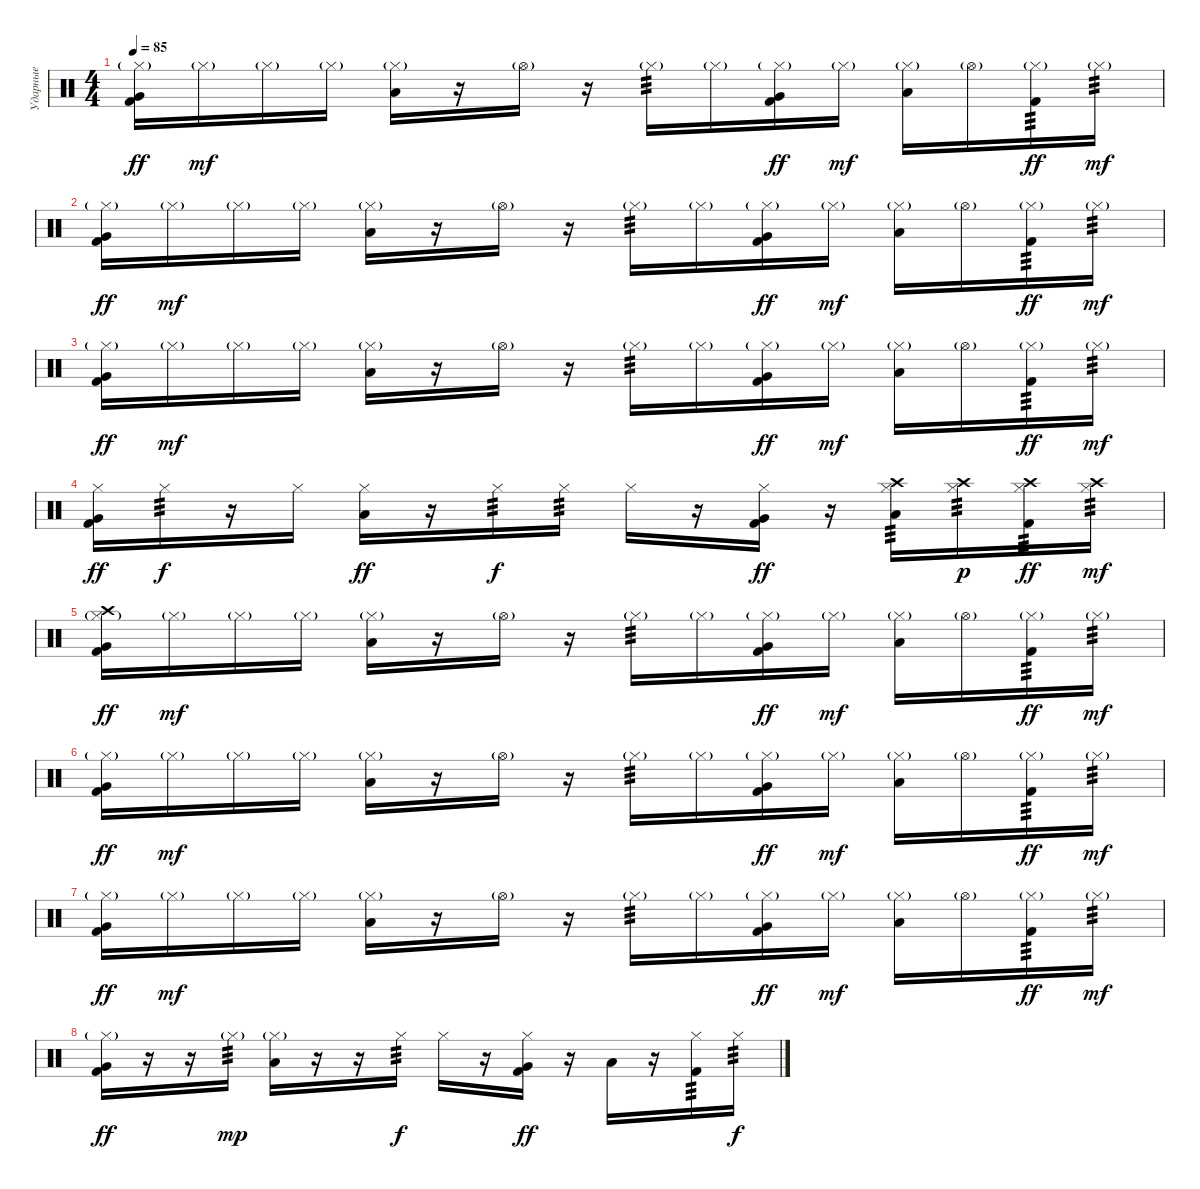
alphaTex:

\track ("Ударные" "Ударные") {instrument percussion}
\staff {score}
\articulation defaults
\ts (4 4)
\tempo 85
\clef neutral
\ks c
("Very Low Tom (hit)" "Hi-Hat (closed)"{g} "Kick (hit) 2").16{dy ff} "Hi-Hat (closed)"{g}.16{dy mf} "Hi-Hat (closed)"{g}.16 "Hi-Hat (closed)"{g}.16 ("Low Tom (hit)" "Hi-Hat (closed)"{g}).16 r.16 "Hi-Hat (open)"{g}.16 r.16 "Hi-Hat (closed)"{g}.16{tp 3} "Hi-Hat (closed)"{g}.16 ("Very Low Tom (hit)" "Hi-Hat (closed)"{g} "Kick (hit) 2").16{dy ff} "Hi-Hat (closed)"{g}.16{dy mf} ("Low Tom (hit)" "Hi-Hat (closed)"{g}).16 "Hi-Hat (open)"{g}.16 ("Hi-Hat (closed)"{g} "Kick (hit) 2").16{tp 3 dy ff} "Hi-Hat (closed)"{g}.16{tp 3 dy mf} |
("Very Low Tom (hit)" "Hi-Hat (closed)"{g} "Kick (hit) 2").16{dy ff} "Hi-Hat (closed)"{g}.16{dy mf} "Hi-Hat (closed)"{g}.16 "Hi-Hat (closed)"{g}.16 ("Low Tom (hit)" "Hi-Hat (closed)"{g}).16 r.16 "Hi-Hat (open)"{g}.16 r.16 "Hi-Hat (closed)"{g}.16{tp 3} "Hi-Hat (closed)"{g}.16 ("Very Low Tom (hit)" "Hi-Hat (closed)"{g} "Kick (hit) 2").16{dy ff} "Hi-Hat (closed)"{g}.16{dy mf} ("Low Tom (hit)" "Hi-Hat (closed)"{g}).16 "Hi-Hat (open)"{g}.16 ("Hi-Hat (closed)"{g} "Kick (hit) 2").16{tp 3 dy ff} "Hi-Hat (closed)"{g}.16{tp 3 dy mf} |
("Very Low Tom (hit)" "Hi-Hat (closed)"{g} "Kick (hit) 2").16{dy ff} "Hi-Hat (closed)"{g}.16{dy mf} "Hi-Hat (closed)"{g}.16 "Hi-Hat (closed)"{g}.16 ("Low Tom (hit)" "Hi-Hat (closed)"{g}).16 r.16 "Hi-Hat (open)"{g}.16 r.16 "Hi-Hat (closed)"{g}.16{tp 3} "Hi-Hat (closed)"{g}.16 ("Very Low Tom (hit)" "Hi-Hat (closed)"{g} "Kick (hit) 2").16{dy ff} "Hi-Hat (closed)"{g}.16{dy mf} ("Low Tom (hit)" "Hi-Hat (closed)"{g}).16 "Hi-Hat (open)"{g}.16 ("Hi-Hat (closed)"{g} "Kick (hit) 2").16{tp 3 dy ff} "Hi-Hat (closed)"{g}.16{tp 3 dy mf} |
("Very Low Tom (hit)" "Hi-Hat (closed)" "Kick (hit) 2").16{dy ff} "Hi-Hat (closed)".16{tp 3 dy f} r.16 "Hi-Hat (closed)".16 ("Low Tom (hit)" "Hi-Hat (closed)").16{dy ff} r.16 "Hi-Hat (closed)".16{tp 3 dy f} "Hi-Hat (closed)".16{tp 3} "Hi-Hat (closed)".16 r.16 ("Very Low Tom (hit)" "Hi-Hat (closed)" "Kick (hit) 2").16{dy ff} r.16 ("Crash high (hit)" "Low Tom (hit)" "Hi-Hat (closed)").16{tp 3} ("Crash high (hit)" "Hi-Hat (closed)").16{tp 3 dy p} ("Crash high (hit)" "Hi-Hat (closed)" "Kick (hit) 2").16{tp 3 dy ff} ("Crash high (hit)" "Hi-Hat (closed)").16{tp 3 dy mf} |
("Crash high (hit)" "Very Low Tom (hit)" "Hi-Hat (closed)"{g} "Kick (hit) 2").16{dy ff} "Hi-Hat (closed)"{g}.16{dy mf} "Hi-Hat (closed)"{g}.16 "Hi-Hat (closed)"{g}.16 ("Low Tom (hit)" "Hi-Hat (closed)"{g}).16 r.16 "Hi-Hat (open)"{g}.16 r.16 "Hi-Hat (closed)"{g}.16{tp 3} "Hi-Hat (closed)"{g}.16 ("Very Low Tom (hit)" "Hi-Hat (closed)"{g} "Kick (hit) 2").16{dy ff} "Hi-Hat (closed)"{g}.16{dy mf} ("Low Tom (hit)" "Hi-Hat (closed)"{g}).16 "Hi-Hat (open)"{g}.16 ("Hi-Hat (closed)"{g} "Kick (hit) 2").16{tp 3 dy ff} "Hi-Hat (closed)"{g}.16{tp 3 dy mf} |
("Very Low Tom (hit)" "Hi-Hat (closed)"{g} "Kick (hit) 2").16{dy ff} "Hi-Hat (closed)"{g}.16{dy mf} "Hi-Hat (closed)"{g}.16 "Hi-Hat (closed)"{g}.16 ("Low Tom (hit)" "Hi-Hat (closed)"{g}).16 r.16 "Hi-Hat (open)"{g}.16 r.16 "Hi-Hat (closed)"{g}.16{tp 3} "Hi-Hat (closed)"{g}.16 ("Very Low Tom (hit)" "Hi-Hat (closed)"{g} "Kick (hit) 2").16{dy ff} "Hi-Hat (closed)"{g}.16{dy mf} ("Low Tom (hit)" "Hi-Hat (closed)"{g}).16 "Hi-Hat (open)"{g}.16 ("Hi-Hat (closed)"{g} "Kick (hit) 2").16{tp 3 dy ff} "Hi-Hat (closed)"{g}.16{tp 3 dy mf} |
("Very Low Tom (hit)" "Hi-Hat (closed)"{g} "Kick (hit) 2").16{dy ff} "Hi-Hat (closed)"{g}.16{dy mf} "Hi-Hat (closed)"{g}.16 "Hi-Hat (closed)"{g}.16 ("Low Tom (hit)" "Hi-Hat (closed)"{g}).16 r.16 "Hi-Hat (open)"{g}.16 r.16 "Hi-Hat (closed)"{g}.16{tp 3} "Hi-Hat (closed)"{g}.16 ("Very Low Tom (hit)" "Hi-Hat (closed)"{g} "Kick (hit) 2").16{dy ff} "Hi-Hat (closed)"{g}.16{dy mf} ("Low Tom (hit)" "Hi-Hat (closed)"{g}).16 "Hi-Hat (open)"{g}.16 ("Hi-Hat (closed)"{g} "Kick (hit) 2").16{tp 3 dy ff} "Hi-Hat (closed)"{g}.16{tp 3 dy mf} |
("Very Low Tom (hit)" "Hi-Hat (closed)"{g} "Kick (hit) 2").16{dy ff} r.16 r.16 "Hi-Hat (closed)"{g}.16{tp 3 dy mp} ("Low Tom (hit)" "Hi-Hat (closed)"{g}).16 r.16 r.16 "Hi-Hat (closed)".16{tp 3 dy f} "Hi-Hat (closed)".16 r.16 ("Very Low Tom (hit)" "Hi-Hat (closed)" "Kick (hit) 2").16{dy ff} r.16 "Low Tom (hit)".16 r.16 ("Hi-Hat (closed)" "Kick (hit) 2").16{tp 3} "Hi-Hat (closed)".16{tp 3 dy f}
